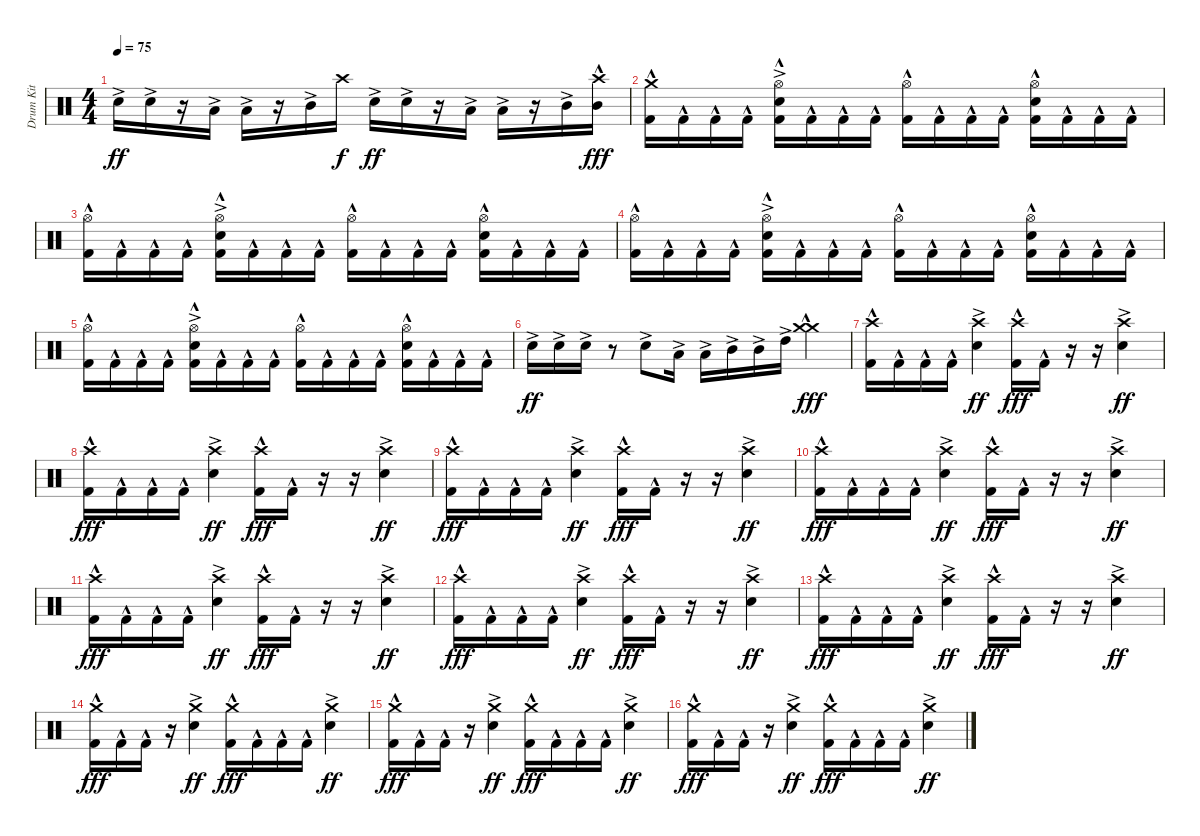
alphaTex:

\track ("Drum Kit" "Drum Kit") {instrument percussion}
\staff {score}
\articulation defaults
\ts (4 4)
\tempo 75
\clef neutral
\ks c "Snare (hit) 2"{ac}.16{dy ff} "Snare (hit) 2"{ac}.16
r.16 "Low Tom (hit)"{ac}.16 "Low Tom (hit)"{ac}.16 r.16 "Mid Tom (hit)"{ac}.16 "Crash high (hit)".16{dy f} "Snare (hit) 2"{ac}.16{dy ff} "Snare (hit) 2"{ac}.16 r.16 "Low Tom (hit)"{ac}.16 "Low Tom (hit)"{ac}.16 r.16 "Mid Tom (hit)"{ac}.16 ("Crash high (hit)"{hac} "Mid Tom (hit)").16{dy fff} |
("Crash medium (hit)"{hac} "Kick (hit) 2"{hac}).16 "Kick (hit) 2"{hac}.16 "Kick (hit) 2"{hac}.16 "Kick (hit) 2"{hac}.16 ("Hi-Hat (open)" "Snare (hit) 2"{ac} "Kick (hit) 2"{hac}).16 "Kick (hit) 2"{hac}.16 "Kick (hit) 2"{hac}.16 "Kick (hit) 2"{hac}.16 ("Hi-Hat (open)" "Kick (hit) 2"{hac}).16 "Kick (hit) 2"{hac}.16 "Kick (hit) 2"{hac}.16 "Kick (hit) 2"{hac}.16 ("Hi-Hat (open)" "Snare (hit) 2" "Kick (hit) 2"{hac}).16 "Kick (hit) 2"{hac}.16 "Kick (hit) 2"{hac}.16 "Kick (hit) 2"{hac}.16 |
("Hi-Hat (open)" "Kick (hit) 2"{hac}).16 "Kick (hit) 2"{hac}.16 "Kick (hit) 2"{hac}.16 "Kick (hit) 2"{hac}.16 ("Hi-Hat (open)" "Snare (hit) 2"{ac} "Kick (hit) 2"{hac}).16 "Kick (hit) 2"{hac}.16 "Kick (hit) 2"{hac}.16 "Kick (hit) 2"{hac}.16 ("Hi-Hat (open)" "Kick (hit) 2"{hac}).16 "Kick (hit) 2"{hac}.16 "Kick (hit) 2"{hac}.16 "Kick (hit) 2"{hac}.16 ("Hi-Hat (open)" "Snare (hit) 2" "Kick (hit) 2"{hac}).16 "Kick (hit) 2"{hac}.16 "Kick (hit) 2"{hac}.16 "Kick (hit) 2"{hac}.16 |
("Hi-Hat (open)" "Kick (hit) 2"{hac}).16 "Kick (hit) 2"{hac}.16 "Kick (hit) 2"{hac}.16 "Kick (hit) 2"{hac}.16 ("Hi-Hat (open)" "Snare (hit) 2"{ac} "Kick (hit) 2"{hac}).16 "Kick (hit) 2"{hac}.16 "Kick (hit) 2"{hac}.16 "Kick (hit) 2"{hac}.16 ("Hi-Hat (open)" "Kick (hit) 2"{hac}).16 "Kick (hit) 2"{hac}.16 "Kick (hit) 2"{hac}.16 "Kick (hit) 2"{hac}.16 ("Hi-Hat (open)" "Snare (hit) 2" "Kick (hit) 2"{hac}).16 "Kick (hit) 2"{hac}.16 "Kick (hit) 2"{hac}.16 "Kick (hit) 2"{hac}.16 |
("Hi-Hat (open)" "Kick (hit) 2"{hac}).16 "Kick (hit) 2"{hac}.16 "Kick (hit) 2"{hac}.16 "Kick (hit) 2"{hac}.16 ("Hi-Hat (open)" "Snare (hit) 2"{ac} "Kick (hit) 2"{hac}).16 "Kick (hit) 2"{hac}.16 "Kick (hit) 2"{hac}.16 "Kick (hit) 2"{hac}.16 ("Hi-Hat (open)" "Kick (hit) 2"{hac}).16 "Kick (hit) 2"{hac}.16 "Kick (hit) 2"{hac}.16 "Kick (hit) 2"{hac}.16 ("Hi-Hat (open)" "Snare (hit) 2" "Kick (hit) 2"{hac}).16 "Kick (hit) 2"{hac}.16 "Kick (hit) 2"{hac}.16 "Kick (hit) 2"{hac}.16 |
"Snare (hit) 2"{ac}.16{dy ff} "Snare (hit) 2"{ac}.16 "Snare (hit) 2"{ac}.16 r.8 "Snare (hit) 2"{ac}.8 "Low Tom (hit)"{ac}.16 "Low Tom (hit)"{ac}.16 "Mid Tom (hit)"{ac}.16 "Mid Tom (hit)"{ac}.16 "High Tom (hit)"{ac}.16 ("Crash medium (hit)"{hac} "Crash medium (hit)"{hac}).4{dy fff} |
("Crash high (hit)" "Kick (hit) 2"{hac}).16 "Kick (hit) 2"{hac}.16 "Kick (hit) 2"{hac}.16 "Kick (hit) 2"{hac}.16 ("Crash high (hit)" "Snare (hit) 2"{ac}).4{dy ff} ("Crash high (hit)" "Kick (hit) 2"{hac}).16{dy fff} "Kick (hit) 2"{hac}.16 r.16 r.16 ("Crash high (hit)" "Snare (hit) 2"{ac}).4{dy ff} |
("Crash high (hit)" "Kick (hit) 2"{hac}).16{dy fff} "Kick (hit) 2"{hac}.16 "Kick (hit) 2"{hac}.16 "Kick (hit) 2"{hac}.16 ("Crash high (hit)" "Snare (hit) 2"{ac}).4{dy ff} ("Crash high (hit)" "Kick (hit) 2"{hac}).16{dy fff} "Kick (hit) 2"{hac}.16 r.16 r.16 ("Crash high (hit)" "Snare (hit) 2"{ac}).4{dy ff} |
("Crash high (hit)" "Kick (hit) 2"{hac}).16{dy fff} "Kick (hit) 2"{hac}.16 "Kick (hit) 2"{hac}.16 "Kick (hit) 2"{hac}.16 ("Crash high (hit)" "Snare (hit) 2"{ac}).4{dy ff} ("Crash high (hit)" "Kick (hit) 2"{hac}).16{dy fff} "Kick (hit) 2"{hac}.16 r.16 r.16 ("Crash high (hit)" "Snare (hit) 2"{ac}).4{dy ff} |
("Crash high (hit)" "Kick (hit) 2"{hac}).16{dy fff} "Kick (hit) 2"{hac}.16 "Kick (hit) 2"{hac}.16 "Kick (hit) 2"{hac}.16 ("Crash high (hit)" "Snare (hit) 2"{ac}).4{dy ff} ("Crash high (hit)" "Kick (hit) 2"{hac}).16{dy fff} "Kick (hit) 2"{hac}.16 r.16 r.16 ("Crash high (hit)" "Snare (hit) 2"{ac}).4{dy ff} |
("Crash high (hit)" "Kick (hit) 2"{hac}).16{dy fff} "Kick (hit) 2"{hac}.16 "Kick (hit) 2"{hac}.16 "Kick (hit) 2"{hac}.16 ("Crash high (hit)" "Snare (hit) 2"{ac}).4{dy ff} ("Crash high (hit)" "Kick (hit) 2"{hac}).16{dy fff} "Kick (hit) 2"{hac}.16 r.16 r.16 ("Crash high (hit)" "Snare (hit) 2"{ac}).4{dy ff} |
("Crash high (hit)" "Kick (hit) 2"{hac}).16{dy fff} "Kick (hit) 2"{hac}.16 "Kick (hit) 2"{hac}.16 "Kick (hit) 2"{hac}.16 ("Crash high (hit)" "Snare (hit) 2"{ac}).4{dy ff} ("Crash high (hit)" "Kick (hit) 2"{hac}).16{dy fff} "Kick (hit) 2"{hac}.16 r.16 r.16 ("Crash high (hit)" "Snare (hit) 2"{ac}).4{dy ff} |
("Crash high (hit)" "Kick (hit) 2"{hac}).16{dy fff} "Kick (hit) 2"{hac}.16 "Kick (hit) 2"{hac}.16 "Kick (hit) 2"{hac}.16 ("Crash high (hit)" "Snare (hit) 2"{ac}).4{dy ff} ("Crash high (hit)" "Kick (hit) 2"{hac}).16{dy fff} "Kick (hit) 2"{hac}.16 r.16 r.16 ("Crash high (hit)" "Snare (hit) 2"{ac}).4{dy ff} |
("Crash medium (hit)" "Kick (hit) 2"{hac}).16{dy fff} "Kick (hit) 2"{hac}.16 "Kick (hit) 2"{hac}.16 r.16 ("Crash medium (hit)" "Snare (hit) 2"{ac}).4{dy ff} ("Crash medium (hit)" "Kick (hit) 2"{hac}).16{dy fff} "Kick (hit) 2"{hac}.16 "Kick (hit) 2"{hac}.16 "Kick (hit) 2"{hac}.16 ("Crash medium (hit)" "Snare (hit) 2"{ac}).4{dy ff} |
("Crash medium (hit)" "Kick (hit) 2"{hac}).16{dy fff} "Kick (hit) 2"{hac}.16 "Kick (hit) 2"{hac}.16 r.16 ("Crash medium (hit)" "Snare (hit) 2"{ac}).4{dy ff} ("Crash medium (hit)" "Kick (hit) 2"{hac}).16{dy fff} "Kick (hit) 2"{hac}.16 "Kick (hit) 2"{hac}.16 "Kick (hit) 2"{hac}.16 ("Crash medium (hit)" "Snare (hit) 2"{ac}).4{dy ff} |
("Crash medium (hit)" "Kick (hit) 2"{hac}).16{dy fff} "Kick (hit) 2"{hac}.16 "Kick (hit) 2"{hac}.16 r.16 ("Crash medium (hit)" "Snare (hit) 2"{ac}).4{dy ff} ("Crash medium (hit)" "Kick (hit) 2"{hac}).16{dy fff} "Kick (hit) 2"{hac}.16 "Kick (hit) 2"{hac}.16 "Kick (hit) 2"{hac}.16 ("Crash medium (hit)" "Snare (hit) 2"{ac}).4{dy ff}
